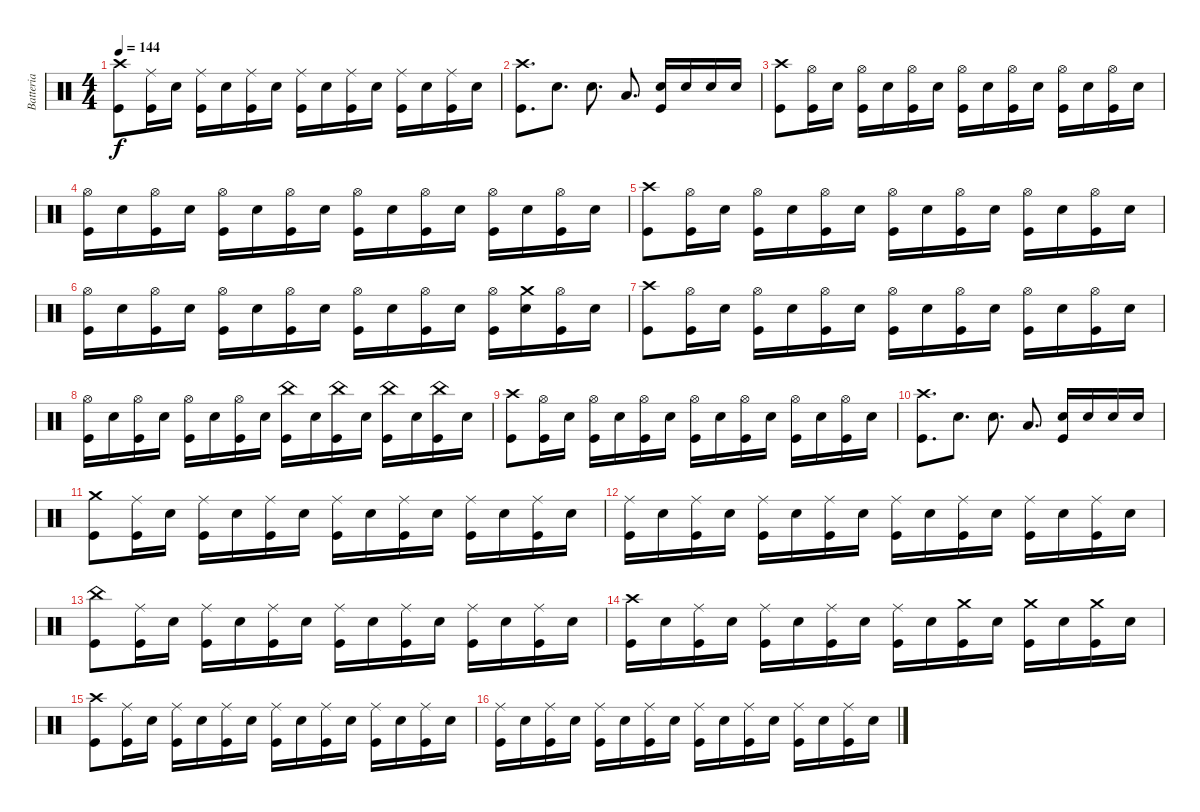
\track ("Batteria" "Batteria") {instrument percussion}
\staff {score}
\articulation defaults
\ts (4 4)
\tempo 144
\clef neutral
\ks c
("Crash high (hit)" "Kick (hit)").8{dy f} ("Ride (middle)" "Kick (hit)").16 "Snare (hit) 2".16 ("Ride (middle)" "Kick (hit)").16 "Snare (hit) 2".16 ("Ride (middle)" "Kick (hit)").16 "Snare (hit) 2".16 ("Ride (middle)" "Kick (hit)").16 "Snare (hit) 2".16 ("Ride (middle)" "Kick (hit)").16 "Snare (hit) 2".16 ("Ride (middle)" "Kick (hit)").16 "Snare (hit) 2".16 ("Ride (middle)" "Kick (hit)").16 "Snare (hit) 2".16 |
("Crash high (hit)" "Kick (hit)").8{d} "Snare (hit) 2".8{d} "Snare (hit) 2".8{d} "Low Tom (hit)".8{d} ("Snare (hit) 2" "Kick (hit)").16 "Snare (hit) 2".16 "Snare (hit) 2".16 "Snare (hit) 2".16 |
("Crash high (hit)" "Kick (hit)").8 ("Hi-Hat (open)" "Kick (hit)").16 "Snare (hit) 2".16 ("Hi-Hat (open)" "Kick (hit)").16 "Snare (hit) 2".16 ("Hi-Hat (open)" "Kick (hit)").16 "Snare (hit) 2".16 ("Hi-Hat (open)" "Kick (hit)").16 "Snare (hit) 2".16 ("Hi-Hat (open)" "Kick (hit)").16 "Snare (hit) 2".16 ("Hi-Hat (open)" "Kick (hit)").16 "Snare (hit) 2".16 ("Hi-Hat (open)" "Kick (hit)").16 "Snare (hit) 2".16 |
("Hi-Hat (open)" "Kick (hit)").16 "Snare (hit) 2".16 ("Hi-Hat (open)" "Kick (hit)").16 "Snare (hit) 2".16 ("Hi-Hat (open)" "Kick (hit)").16 "Snare (hit) 2".16 ("Hi-Hat (open)" "Kick (hit)").16 "Snare (hit) 2".16 ("Hi-Hat (open)" "Kick (hit)").16 "Snare (hit) 2".16 ("Hi-Hat (open)" "Kick (hit)").16 "Snare (hit) 2".16 ("Hi-Hat (open)" "Kick (hit)").16 "Snare (hit) 2".16 ("Hi-Hat (open)" "Kick (hit)").16 "Snare (hit) 2".16 |
("Crash high (hit)" "Kick (hit)").8 ("Hi-Hat (open)" "Kick (hit)").16 "Snare (hit) 2".16 ("Hi-Hat (open)" "Kick (hit)").16 "Snare (hit) 2".16 ("Hi-Hat (open)" "Kick (hit)").16 "Snare (hit) 2".16 ("Hi-Hat (open)" "Kick (hit)").16 "Snare (hit) 2".16 ("Hi-Hat (open)" "Kick (hit)").16 "Snare (hit) 2".16 ("Hi-Hat (open)" "Kick (hit)").16 "Snare (hit) 2".16 ("Hi-Hat (open)" "Kick (hit)").16 "Snare (hit) 2".16 |
("Hi-Hat (open)" "Kick (hit)").16 "Snare (hit) 2".16 ("Hi-Hat (open)" "Kick (hit)").16 "Snare (hit) 2".16 ("Hi-Hat (open)" "Kick (hit)").16 "Snare (hit) 2".16 ("Hi-Hat (open)" "Kick (hit)").16 "Snare (hit) 2".16 ("Hi-Hat (open)" "Kick (hit)").16 "Snare (hit) 2".16 ("Hi-Hat (open)" "Kick (hit)").16 "Snare (hit) 2".16 ("Hi-Hat (open)" "Kick (hit)").16 ("Crash medium (hit)" "Snare (hit) 2").16 ("Hi-Hat (open)" "Kick (hit)").16 "Snare (hit) 2".16 |
("Crash high (hit)" "Kick (hit)").8 ("Hi-Hat (open)" "Kick (hit)").16 "Snare (hit) 2".16 ("Hi-Hat (open)" "Kick (hit)").16 "Snare (hit) 2".16 ("Hi-Hat (open)" "Kick (hit)").16 "Snare (hit) 2".16 ("Hi-Hat (open)" "Kick (hit)").16 "Snare (hit) 2".16 ("Hi-Hat (open)" "Kick (hit)").16 "Snare (hit) 2".16 ("Hi-Hat (open)" "Kick (hit)").16 "Snare (hit) 2".16 ("Hi-Hat (open)" "Kick (hit)").16 "Snare (hit) 2".16 |
("Hi-Hat (open)" "Kick (hit)").16 "Snare (hit) 2".16 ("Hi-Hat (open)" "Kick (hit)").16 "Snare (hit) 2".16 ("Hi-Hat (open)" "Kick (hit)").16 "Snare (hit) 2".16 ("Hi-Hat (open)" "Kick (hit)").16 "Snare (hit) 2".16 ("China (hit)" "Kick (hit)").16 "Snare (hit) 2".16 ("China (hit)" "Kick (hit)").16 "Snare (hit) 2".16 ("China (hit)" "Kick (hit)").16 "Snare (hit) 2".16 ("China (hit)" "Kick (hit)").16 "Snare (hit) 2".16 |
("Crash high (hit)" "Kick (hit)").8 ("Hi-Hat (open)" "Kick (hit)").16 "Snare (hit) 2".16 ("Hi-Hat (open)" "Kick (hit)").16 "Snare (hit) 2".16 ("Hi-Hat (open)" "Kick (hit)").16 "Snare (hit) 2".16 ("Hi-Hat (open)" "Kick (hit)").16 "Snare (hit) 2".16 ("Hi-Hat (open)" "Kick (hit)").16 "Snare (hit) 2".16 ("Hi-Hat (open)" "Kick (hit)").16 "Snare (hit) 2".16 ("Hi-Hat (open)" "Kick (hit)").16 "Snare (hit) 2".16 |
("Crash high (hit)" "Kick (hit)").8{d} "Snare (hit) 2".8{d} "Snare (hit) 2".8{d} "Low Tom (hit)".8{d} ("Snare (hit) 2" "Kick (hit)").16 "Snare (hit) 2".16 "Snare (hit) 2".16 "Snare (hit) 2".16 |
("Crash medium (hit)" "Kick (hit)").8 ("Ride (middle)" "Kick (hit)").16 "Snare (hit) 2".16 ("Ride (middle)" "Kick (hit)").16 "Snare (hit) 2".16 ("Ride (middle)" "Kick (hit)").16 "Snare (hit) 2".16 ("Ride (middle)" "Kick (hit)").16 "Snare (hit) 2".16 ("Ride (middle)" "Kick (hit)").16 "Snare (hit) 2".16 ("Ride (middle)" "Kick (hit)").16 "Snare (hit) 2".16 ("Ride (middle)" "Kick (hit)").16 "Snare (hit) 2".16 |
("Ride (middle)" "Kick (hit)").16 "Snare (hit) 2".16 ("Ride (middle)" "Kick (hit)").16 "Snare (hit) 2".16 ("Ride (middle)" "Kick (hit)").16 "Snare (hit) 2".16 ("Ride (middle)" "Kick (hit)").16 "Snare (hit) 2".16 ("Ride (middle)" "Kick (hit)").16 "Snare (hit) 2".16 ("Ride (middle)" "Kick (hit)").16 "Snare (hit) 2".16 ("Ride (middle)" "Kick (hit)").16 "Snare (hit) 2".16 ("Ride (middle)" "Kick (hit)").16 "Snare (hit) 2".16 |
("China (hit)" "Kick (hit)").8 ("Ride (middle)" "Kick (hit)").16 "Snare (hit) 2".16 ("Ride (middle)" "Kick (hit)").16 "Snare (hit) 2".16 ("Ride (middle)" "Kick (hit)").16 "Snare (hit) 2".16 ("Ride (middle)" "Kick (hit)").16 "Snare (hit) 2".16 ("Ride (middle)" "Kick (hit)").16 "Snare (hit) 2".16 ("Ride (middle)" "Kick (hit)").16 "Snare (hit) 2".16 ("Ride (middle)" "Kick (hit)").16 "Snare (hit) 2".16 |
("Crash high (hit)" "Kick (hit)").16 "Snare (hit) 2".16 ("Ride (middle)" "Kick (hit)").16 "Snare (hit) 2".16 ("Ride (middle)" "Kick (hit)").16 "Snare (hit) 2".16 ("Ride (middle)" "Kick (hit)").16 "Snare (hit) 2".16 ("Ride (middle)" "Kick (hit)").16 "Snare (hit) 2".16 ("Crash medium (hit)" "Kick (hit)").16 "Snare (hit) 2".16 ("Crash medium (hit)" "Kick (hit)").16 "Snare (hit) 2".16 ("Crash medium (hit)" "Kick (hit)").16 "Snare (hit) 2".16 |
("Crash high (hit)" "Kick (hit)").8 ("Ride (middle)" "Kick (hit)").16 "Snare (hit) 2".16 ("Ride (middle)" "Kick (hit)").16 "Snare (hit) 2".16 ("Ride (middle)" "Kick (hit)").16 "Snare (hit) 2".16 ("Ride (middle)" "Kick (hit)").16 "Snare (hit) 2".16 ("Ride (middle)" "Kick (hit)").16 "Snare (hit) 2".16 ("Ride (middle)" "Kick (hit)").16 "Snare (hit) 2".16 ("Ride (middle)" "Kick (hit)").16 "Snare (hit) 2".16 |
("Ride (middle)" "Kick (hit)").16 "Snare (hit) 2".16 ("Ride (middle)" "Kick (hit)").16 "Snare (hit) 2".16 ("Ride (middle)" "Kick (hit)").16 "Snare (hit) 2".16 ("Ride (middle)" "Kick (hit)").16 "Snare (hit) 2".16 ("Ride (middle)" "Kick (hit)").16 "Snare (hit) 2".16 ("Ride (middle)" "Kick (hit)").16 "Snare (hit) 2".16 ("Ride (middle)" "Kick (hit)").16 "Snare (hit) 2".16 ("Ride (middle)" "Kick (hit)").16 "Snare (hit) 2".16
